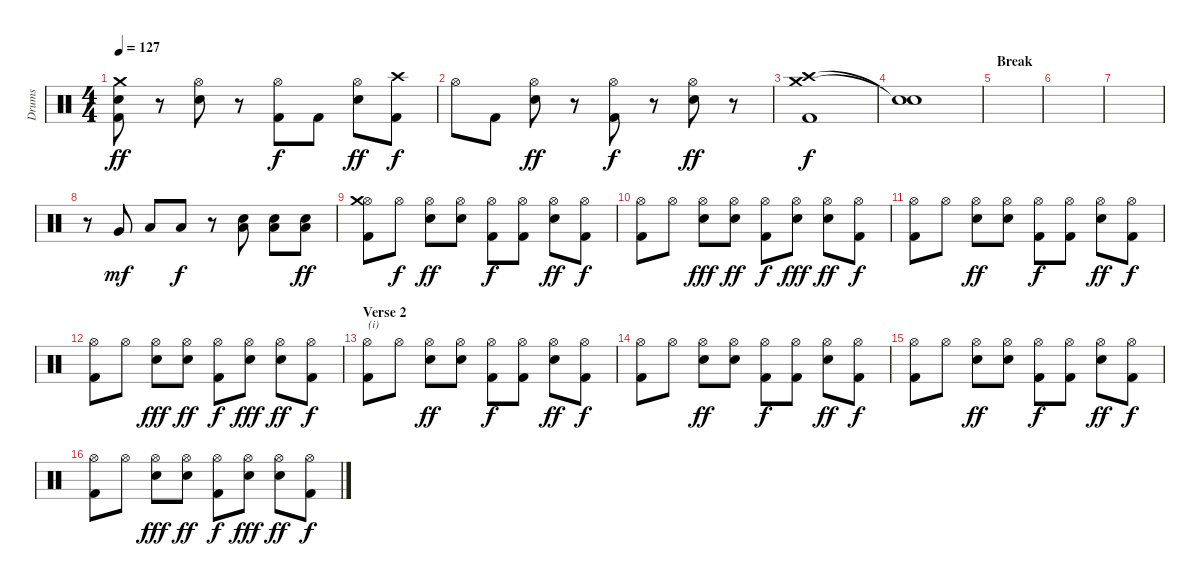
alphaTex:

\track ("Drums" "Drums") {instrument percussion}
\staff {score}
\articulation defaults
\ts (4 4)
\tempo 127
\clef neutral
\ks c
("Crash medium (hit)" "Electric Snare (hit)" "Kick (hit) 2").8{dy ff} r.8 ("Hi-Hat (open)" "Electric Snare (hit)").8 r.8 ("Hi-Hat (open)" "Kick (hit) 2").8{dy f} "Kick (hit) 2".8 ("Hi-Hat (open)" "Electric Snare (hit)").8{dy ff} ("Crash high (hit)" "Kick (hit) 2").8{dy f} |
"Hi-Hat (open)".8 "Kick (hit) 2".8 ("Hi-Hat (open)" "Electric Snare (hit)").8{dy ff} r.8 ("Hi-Hat (open)" "Kick (hit) 2").8{dy f} r.8 ("Hi-Hat (open)" "Electric Snare (hit)").8{dy ff} r.8 |
("Crash high (hit)" "Crash medium (hit)" "Kick (hit) 2").1{dy f} |
("Snare (hit)"{t} "Snare (hit)"{t}).1 |
\section ("" "Break")
|
|
|
r.8 "Very Low Tom (hit)".8{dy mf} "Low Tom (hit)".8 "Low Tom (hit)".8{dy f} r.8 ("Low Tom (hit)" "Electric Snare (hit)").8 ("Low Tom (hit)" "Electric Snare (hit)").8 ("Low Tom (hit)" "Electric Snare (hit)").8{dy ff} |
("Hi-Hat (open)" "Crash medium (hit)" "Kick (hit) 2").8 "Hi-Hat (open)".8{dy f} ("Hi-Hat (open)" "Electric Snare (hit)").8{dy ff} ("Hi-Hat (open)" "Electric Snare (hit)").8 ("Hi-Hat (open)" "Kick (hit) 2").8{dy f} ("Hi-Hat (open)" "Kick (hit) 2").8 ("Hi-Hat (open)" "Electric Snare (hit)").8{dy ff} ("Hi-Hat (open)" "Kick (hit) 2").8{dy f} |
("Hi-Hat (open)" "Kick (hit) 2").8 "Hi-Hat (open)".8 ("Hi-Hat (open)" "Electric Snare (hit)").8{dy fff} ("Hi-Hat (open)" "Electric Snare (hit)").8{dy ff} ("Hi-Hat (open)" "Kick (hit) 2").8{dy f} ("Hi-Hat (open)" "Electric Snare (hit)").8{dy fff} ("Hi-Hat (open)" "Electric Snare (hit)").8{dy ff} ("Hi-Hat (open)" "Kick (hit) 2").8{dy f} |
("Hi-Hat (open)" "Kick (hit) 2").8 "Hi-Hat (open)".8 ("Hi-Hat (open)" "Electric Snare (hit)").8{dy ff} ("Hi-Hat (open)" "Electric Snare (hit)").8 ("Hi-Hat (open)" "Kick (hit) 2").8{dy f} ("Hi-Hat (open)" "Kick (hit) 2").8 ("Hi-Hat (open)" "Electric Snare (hit)").8{dy ff} ("Hi-Hat (open)" "Kick (hit) 2").8{dy f} |
("Hi-Hat (open)" "Kick (hit) 2").8 "Hi-Hat (open)".8 ("Hi-Hat (open)" "Electric Snare (hit)").8{dy fff} ("Hi-Hat (open)" "Electric Snare (hit)").8{dy ff} ("Hi-Hat (open)" "Kick (hit) 2").8{dy f} ("Hi-Hat (open)" "Electric Snare (hit)").8{dy fff} ("Hi-Hat (open)" "Electric Snare (hit)").8{dy ff} ("Hi-Hat (open)" "Kick (hit) 2").8{dy f} |
\section ("" "Verse 2")
("Hi-Hat (open)" "Kick (hit) 2").8{txt "(i)"} "Hi-Hat (open)".8 ("Hi-Hat (open)" "Electric Snare (hit)").8{dy ff} ("Hi-Hat (open)" "Electric Snare (hit)").8 ("Hi-Hat (open)" "Kick (hit) 2").8{dy f} ("Hi-Hat (open)" "Kick (hit) 2").8 ("Hi-Hat (open)" "Electric Snare (hit)").8{dy ff} ("Hi-Hat (open)" "Kick (hit) 2").8{dy f} |
("Hi-Hat (open)" "Kick (hit) 2").8 "Hi-Hat (open)".8 ("Hi-Hat (open)" "Electric Snare (hit)").8{dy ff} ("Hi-Hat (open)" "Electric Snare (hit)").8 ("Hi-Hat (open)" "Kick (hit) 2").8{dy f} ("Hi-Hat (open)" "Kick (hit) 2").8 ("Hi-Hat (open)" "Electric Snare (hit)").8{dy ff} ("Hi-Hat (open)" "Kick (hit) 2").8{dy f} |
("Hi-Hat (open)" "Kick (hit) 2").8 "Hi-Hat (open)".8 ("Hi-Hat (open)" "Electric Snare (hit)").8{dy ff} ("Hi-Hat (open)" "Electric Snare (hit)").8 ("Hi-Hat (open)" "Kick (hit) 2").8{dy f} ("Hi-Hat (open)" "Kick (hit) 2").8 ("Hi-Hat (open)" "Electric Snare (hit)").8{dy ff} ("Hi-Hat (open)" "Kick (hit) 2").8{dy f} |
("Hi-Hat (open)" "Kick (hit) 2").8 "Hi-Hat (open)".8 ("Hi-Hat (open)" "Electric Snare (hit)").8{dy fff} ("Hi-Hat (open)" "Electric Snare (hit)").8{dy ff} ("Hi-Hat (open)" "Kick (hit) 2").8{dy f} ("Hi-Hat (open)" "Electric Snare (hit)").8{dy fff} ("Hi-Hat (open)" "Electric Snare (hit)").8{dy ff} ("Hi-Hat (open)" "Kick (hit) 2").8{dy f}
